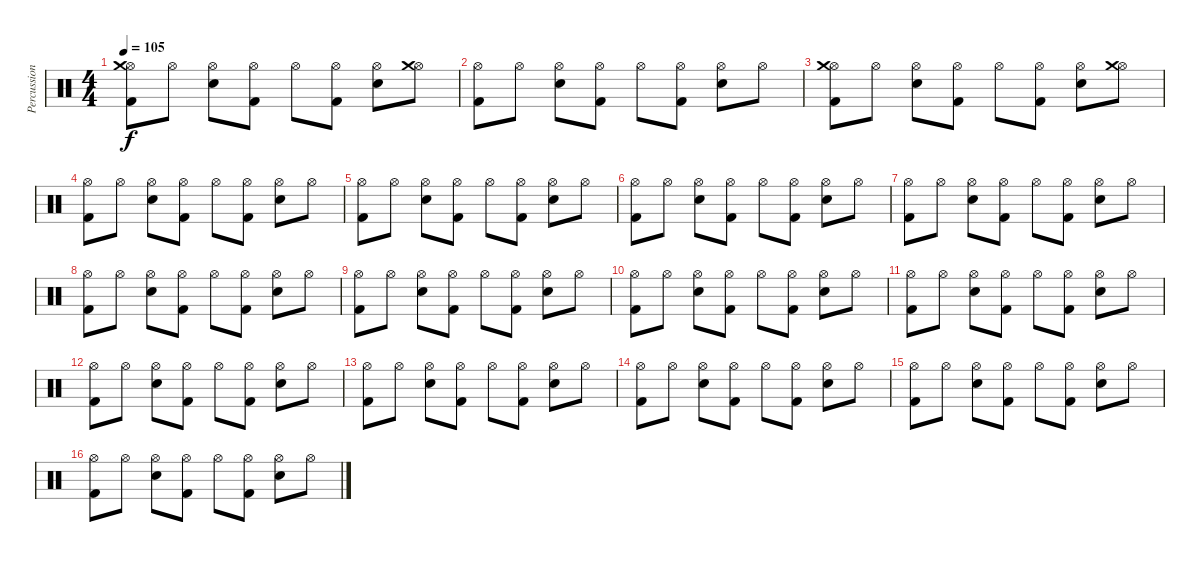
\track ("Percussion" "Percussion") {instrument percussion}
\staff {score}
\articulation defaults
\ts (4 4)
\tempo 105
\clef neutral
\ks c
("Hi-Hat (open)" "Kick (hit) 2" "Crash medium (hit)").8{dy f volume 14} "Hi-Hat (open)".8 ("Hi-Hat (open)" "Snare (hit) 2").8 ("Hi-Hat (open)" "Kick (hit) 2").8 "Hi-Hat (open)".8 ("Hi-Hat (open)" "Kick (hit) 2").8 ("Hi-Hat (open)" "Snare (hit) 2").8 ("Hi-Hat (open)" "Crash medium (hit)").8 |
("Hi-Hat (open)" "Kick (hit) 2").8 "Hi-Hat (open)".8 ("Hi-Hat (open)" "Snare (hit) 2").8 ("Hi-Hat (open)" "Kick (hit) 2").8 "Hi-Hat (open)".8 ("Hi-Hat (open)" "Kick (hit) 2").8 ("Hi-Hat (open)" "Snare (hit) 2").8 "Hi-Hat (open)".8 |
("Hi-Hat (open)" "Kick (hit) 2" "Crash medium (hit)").8 "Hi-Hat (open)".8 ("Hi-Hat (open)" "Snare (hit) 2").8 ("Hi-Hat (open)" "Kick (hit) 2").8 "Hi-Hat (open)".8 ("Hi-Hat (open)" "Kick (hit) 2").8 ("Hi-Hat (open)" "Snare (hit) 2").8 ("Hi-Hat (open)" "Crash medium (hit)").8 |
("Hi-Hat (open)" "Kick (hit) 2").8 "Hi-Hat (open)".8 ("Hi-Hat (open)" "Snare (hit) 2").8 ("Hi-Hat (open)" "Kick (hit) 2").8 "Hi-Hat (open)".8 ("Hi-Hat (open)" "Kick (hit) 2").8 ("Hi-Hat (open)" "Snare (hit) 2").8 "Hi-Hat (open)".8 |
("Hi-Hat (open)" "Kick (hit) 2").8 "Hi-Hat (open)".8 ("Hi-Hat (open)" "Snare (hit) 2").8 ("Hi-Hat (open)" "Kick (hit) 2").8 "Hi-Hat (open)".8 ("Hi-Hat (open)" "Kick (hit) 2").8 ("Hi-Hat (open)" "Snare (hit) 2").8 "Hi-Hat (open)".8 |
("Hi-Hat (open)" "Kick (hit) 2").8 "Hi-Hat (open)".8 ("Hi-Hat (open)" "Snare (hit) 2").8 ("Hi-Hat (open)" "Kick (hit) 2").8 "Hi-Hat (open)".8 ("Hi-Hat (open)" "Kick (hit) 2").8 ("Hi-Hat (open)" "Snare (hit) 2").8 "Hi-Hat (open)".8 |
("Hi-Hat (open)" "Kick (hit) 2").8 "Hi-Hat (open)".8 ("Hi-Hat (open)" "Snare (hit) 2").8 ("Hi-Hat (open)" "Kick (hit) 2").8 "Hi-Hat (open)".8 ("Hi-Hat (open)" "Kick (hit) 2").8 ("Hi-Hat (open)" "Snare (hit) 2").8 "Hi-Hat (open)".8 |
("Hi-Hat (open)" "Kick (hit) 2").8 "Hi-Hat (open)".8 ("Hi-Hat (open)" "Snare (hit) 2").8 ("Hi-Hat (open)" "Kick (hit) 2").8 "Hi-Hat (open)".8 ("Hi-Hat (open)" "Kick (hit) 2").8 ("Hi-Hat (open)" "Snare (hit) 2").8 "Hi-Hat (open)".8 |
("Hi-Hat (open)" "Kick (hit) 2").8 "Hi-Hat (open)".8 ("Hi-Hat (open)" "Snare (hit) 2").8 ("Hi-Hat (open)" "Kick (hit) 2").8 "Hi-Hat (open)".8 ("Hi-Hat (open)" "Kick (hit) 2").8 ("Hi-Hat (open)" "Snare (hit) 2").8 "Hi-Hat (open)".8 |
("Hi-Hat (open)" "Kick (hit) 2").8 "Hi-Hat (open)".8 ("Hi-Hat (open)" "Snare (hit) 2").8 ("Hi-Hat (open)" "Kick (hit) 2").8 "Hi-Hat (open)".8 ("Hi-Hat (open)" "Kick (hit) 2").8 ("Hi-Hat (open)" "Snare (hit) 2").8 "Hi-Hat (open)".8 |
("Hi-Hat (open)" "Kick (hit) 2").8 "Hi-Hat (open)".8 ("Hi-Hat (open)" "Snare (hit) 2").8 ("Hi-Hat (open)" "Kick (hit) 2").8 "Hi-Hat (open)".8 ("Hi-Hat (open)" "Kick (hit) 2").8 ("Hi-Hat (open)" "Snare (hit) 2").8 "Hi-Hat (open)".8 |
("Hi-Hat (open)" "Kick (hit) 2").8 "Hi-Hat (open)".8 ("Hi-Hat (open)" "Snare (hit) 2").8 ("Hi-Hat (open)" "Kick (hit) 2").8 "Hi-Hat (open)".8 ("Hi-Hat (open)" "Kick (hit) 2").8 ("Hi-Hat (open)" "Snare (hit) 2").8 "Hi-Hat (open)".8 |
("Hi-Hat (open)" "Kick (hit) 2").8 "Hi-Hat (open)".8 ("Hi-Hat (open)" "Snare (hit) 2").8 ("Hi-Hat (open)" "Kick (hit) 2").8 "Hi-Hat (open)".8 ("Hi-Hat (open)" "Kick (hit) 2").8 ("Hi-Hat (open)" "Snare (hit) 2").8 "Hi-Hat (open)".8 |
("Hi-Hat (open)" "Kick (hit) 2").8 "Hi-Hat (open)".8 ("Hi-Hat (open)" "Snare (hit) 2").8 ("Hi-Hat (open)" "Kick (hit) 2").8 "Hi-Hat (open)".8 ("Hi-Hat (open)" "Kick (hit) 2").8 ("Hi-Hat (open)" "Snare (hit) 2").8 "Hi-Hat (open)".8 |
("Hi-Hat (open)" "Kick (hit) 2").8 "Hi-Hat (open)".8 ("Hi-Hat (open)" "Snare (hit) 2").8 ("Hi-Hat (open)" "Kick (hit) 2").8 "Hi-Hat (open)".8 ("Hi-Hat (open)" "Kick (hit) 2").8 ("Hi-Hat (open)" "Snare (hit) 2").8 "Hi-Hat (open)".8 |
("Hi-Hat (open)" "Kick (hit) 2").8 "Hi-Hat (open)".8 ("Hi-Hat (open)" "Snare (hit) 2").8 ("Hi-Hat (open)" "Kick (hit) 2").8 "Hi-Hat (open)".8 ("Hi-Hat (open)" "Kick (hit) 2").8 ("Hi-Hat (open)" "Snare (hit) 2").8 "Hi-Hat (open)".8
